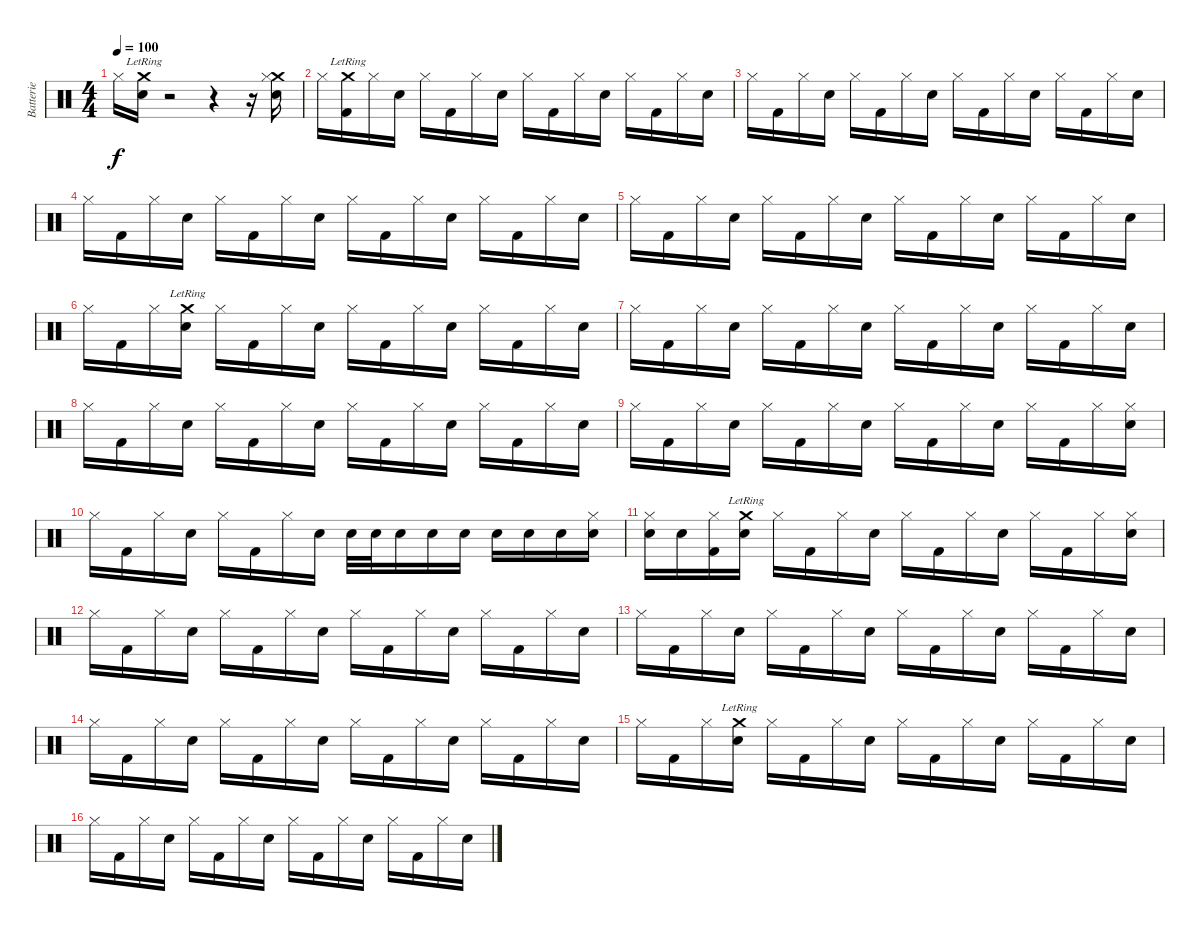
\track ("Batterie" "Batterie") {instrument percussion}
\staff {score}
\articulation defaults
\ts (4 4)
\tempo 100
\clef neutral
\ks c "Hi-Hat (closed)".16{dy f}
("Crash medium (hit)"{lr} "Metronome (bell)").16 r.2 r.4 r.16 ("Crash medium (hit)" "Metronome (bell)" "Hi-Hat (closed)").16 |
"Hi-Hat (closed)".16 ("Crash medium (hit)"{lr} "Kick (hit) 2").16 "Hi-Hat (closed)".16 "Metronome (bell)".16 "Hi-Hat (closed)".16 "Kick (hit) 2".16 "Hi-Hat (closed)".16 "Metronome (bell)".16 "Hi-Hat (closed)".16 "Kick (hit) 2".16 "Hi-Hat (closed)".16 "Metronome (bell)".16 "Hi-Hat (closed)".16 "Kick (hit) 2".16 "Hi-Hat (closed)".16 "Metronome (bell)".16 |
"Hi-Hat (closed)".16 "Kick (hit) 2".16 "Hi-Hat (closed)".16 "Metronome (bell)".16 "Hi-Hat (closed)".16 "Kick (hit) 2".16 "Hi-Hat (closed)".16 "Metronome (bell)".16 "Hi-Hat (closed)".16 "Kick (hit) 2".16 "Hi-Hat (closed)".16 "Metronome (bell)".16 "Hi-Hat (closed)".16 "Kick (hit) 2".16 "Hi-Hat (closed)".16 "Metronome (bell)".16 |
"Hi-Hat (closed)".16 "Kick (hit) 2".16 "Hi-Hat (closed)".16 "Metronome (bell)".16 "Hi-Hat (closed)".16 "Kick (hit) 2".16 "Hi-Hat (closed)".16 "Metronome (bell)".16 "Hi-Hat (closed)".16 "Kick (hit) 2".16 "Hi-Hat (closed)".16 "Metronome (bell)".16 "Hi-Hat (closed)".16 "Kick (hit) 2".16 "Hi-Hat (closed)".16 "Metronome (bell)".16 |
"Hi-Hat (closed)".16 "Kick (hit) 2".16 "Hi-Hat (closed)".16 "Metronome (bell)".16 "Hi-Hat (closed)".16 "Kick (hit) 2".16 "Hi-Hat (closed)".16 "Metronome (bell)".16 "Hi-Hat (closed)".16 "Kick (hit) 2".16 "Hi-Hat (closed)".16 "Metronome (bell)".16 "Hi-Hat (closed)".16 "Kick (hit) 2".16 "Hi-Hat (closed)".16 "Metronome (bell)".16 |
"Hi-Hat (closed)".16 "Kick (hit) 2".16 "Hi-Hat (closed)".16 ("Crash medium (hit)"{lr} "Metronome (bell)").16 "Hi-Hat (closed)".16 "Kick (hit) 2".16 "Hi-Hat (closed)".16 "Metronome (bell)".16 "Hi-Hat (closed)".16 "Kick (hit) 2".16 "Hi-Hat (closed)".16 "Metronome (bell)".16 "Hi-Hat (closed)".16 "Kick (hit) 2".16 "Hi-Hat (closed)".16 "Metronome (bell)".16 |
"Hi-Hat (closed)".16 "Kick (hit) 2".16 "Hi-Hat (closed)".16 "Metronome (bell)".16 "Hi-Hat (closed)".16 "Kick (hit) 2".16 "Hi-Hat (closed)".16 "Metronome (bell)".16 "Hi-Hat (closed)".16 "Kick (hit) 2".16 "Hi-Hat (closed)".16 "Metronome (bell)".16 "Hi-Hat (closed)".16 "Kick (hit) 2".16 "Hi-Hat (closed)".16 "Metronome (bell)".16 |
"Hi-Hat (closed)".16 "Kick (hit) 2".16 "Hi-Hat (closed)".16 "Metronome (bell)".16 "Hi-Hat (closed)".16 "Kick (hit) 2".16 "Hi-Hat (closed)".16 "Metronome (bell)".16 "Hi-Hat (closed)".16 "Kick (hit) 2".16 "Hi-Hat (closed)".16 "Metronome (bell)".16 "Hi-Hat (closed)".16 "Kick (hit) 2".16 "Hi-Hat (closed)".16 "Metronome (bell)".16 |
"Hi-Hat (closed)".16 "Kick (hit) 2".16 "Hi-Hat (closed)".16 "Metronome (bell)".16 "Hi-Hat (closed)".16 "Kick (hit) 2".16 "Hi-Hat (closed)".16 "Metronome (bell)".16 "Hi-Hat (closed)".16 "Kick (hit) 2".16 "Hi-Hat (closed)".16 "Metronome (bell)".16 "Hi-Hat (closed)".16 "Kick (hit) 2".16 "Hi-Hat (closed)".16 ("Metronome (bell)" "Hi-Hat (closed)").16 |
"Hi-Hat (closed)".16 "Kick (hit) 2".16 "Hi-Hat (closed)".16 "Metronome (bell)".16 "Hi-Hat (closed)".16 "Kick (hit) 2".16 "Hi-Hat (closed)".16 "Metronome (bell)".16 "Metronome (bell)".32 "Metronome (bell)".32 "Metronome (bell)".16 "Metronome (bell)".16 "Metronome (bell)".16 "Metronome (bell)".16 "Metronome (bell)".16 "Metronome (bell)".16 ("Metronome (bell)" "Hi-Hat (closed)").16 |
("Metronome (bell)" "Hi-Hat (closed)").16 "Metronome (bell)".16 ("Kick (hit) 2" "Hi-Hat (closed)").16 ("Crash medium (hit)"{lr} "Metronome (bell)").16 "Hi-Hat (closed)".16 "Kick (hit) 2".16 "Hi-Hat (closed)".16 "Metronome (bell)".16 "Hi-Hat (closed)".16 "Kick (hit) 2".16 "Hi-Hat (closed)".16 "Metronome (bell)".16 "Hi-Hat (closed)".16 "Kick (hit) 2".16 "Hi-Hat (closed)".16 ("Metronome (bell)" "Hi-Hat (closed)").16 |
"Hi-Hat (closed)".16 "Kick (hit) 2".16 "Hi-Hat (closed)".16 "Metronome (bell)".16 "Hi-Hat (closed)".16 "Kick (hit) 2".16 "Hi-Hat (closed)".16 "Metronome (bell)".16 "Hi-Hat (closed)".16 "Kick (hit) 2".16 "Hi-Hat (closed)".16 "Metronome (bell)".16 "Hi-Hat (closed)".16 "Kick (hit) 2".16 "Hi-Hat (closed)".16 "Metronome (bell)".16 |
"Hi-Hat (closed)".16 "Kick (hit) 2".16 "Hi-Hat (closed)".16 "Metronome (bell)".16 "Hi-Hat (closed)".16 "Kick (hit) 2".16 "Hi-Hat (closed)".16 "Metronome (bell)".16 "Hi-Hat (closed)".16 "Kick (hit) 2".16 "Hi-Hat (closed)".16 "Metronome (bell)".16 "Hi-Hat (closed)".16 "Kick (hit) 2".16 "Hi-Hat (closed)".16 "Metronome (bell)".16 |
"Hi-Hat (closed)".16 "Kick (hit) 2".16 "Hi-Hat (closed)".16 "Metronome (bell)".16 "Hi-Hat (closed)".16 "Kick (hit) 2".16 "Hi-Hat (closed)".16 "Metronome (bell)".16 "Hi-Hat (closed)".16 "Kick (hit) 2".16 "Hi-Hat (closed)".16 "Metronome (bell)".16 "Hi-Hat (closed)".16 "Kick (hit) 2".16 "Hi-Hat (closed)".16 "Metronome (bell)".16 |
"Hi-Hat (closed)".16 "Kick (hit) 2".16 "Hi-Hat (closed)".16 ("Crash medium (hit)"{lr} "Metronome (bell)").16 "Hi-Hat (closed)".16 "Kick (hit) 2".16 "Hi-Hat (closed)".16 "Metronome (bell)".16 "Hi-Hat (closed)".16 "Kick (hit) 2".16 "Hi-Hat (closed)".16 "Metronome (bell)".16 "Hi-Hat (closed)".16 "Kick (hit) 2".16 "Hi-Hat (closed)".16 "Metronome (bell)".16 |
"Hi-Hat (closed)".16 "Kick (hit) 2".16 "Hi-Hat (closed)".16 "Metronome (bell)".16 "Hi-Hat (closed)".16 "Kick (hit) 2".16 "Hi-Hat (closed)".16 "Metronome (bell)".16 "Hi-Hat (closed)".16 "Kick (hit) 2".16 "Hi-Hat (closed)".16 "Metronome (bell)".16 "Hi-Hat (closed)".16 "Kick (hit) 2".16 "Hi-Hat (closed)".16 "Metronome (bell)".16
